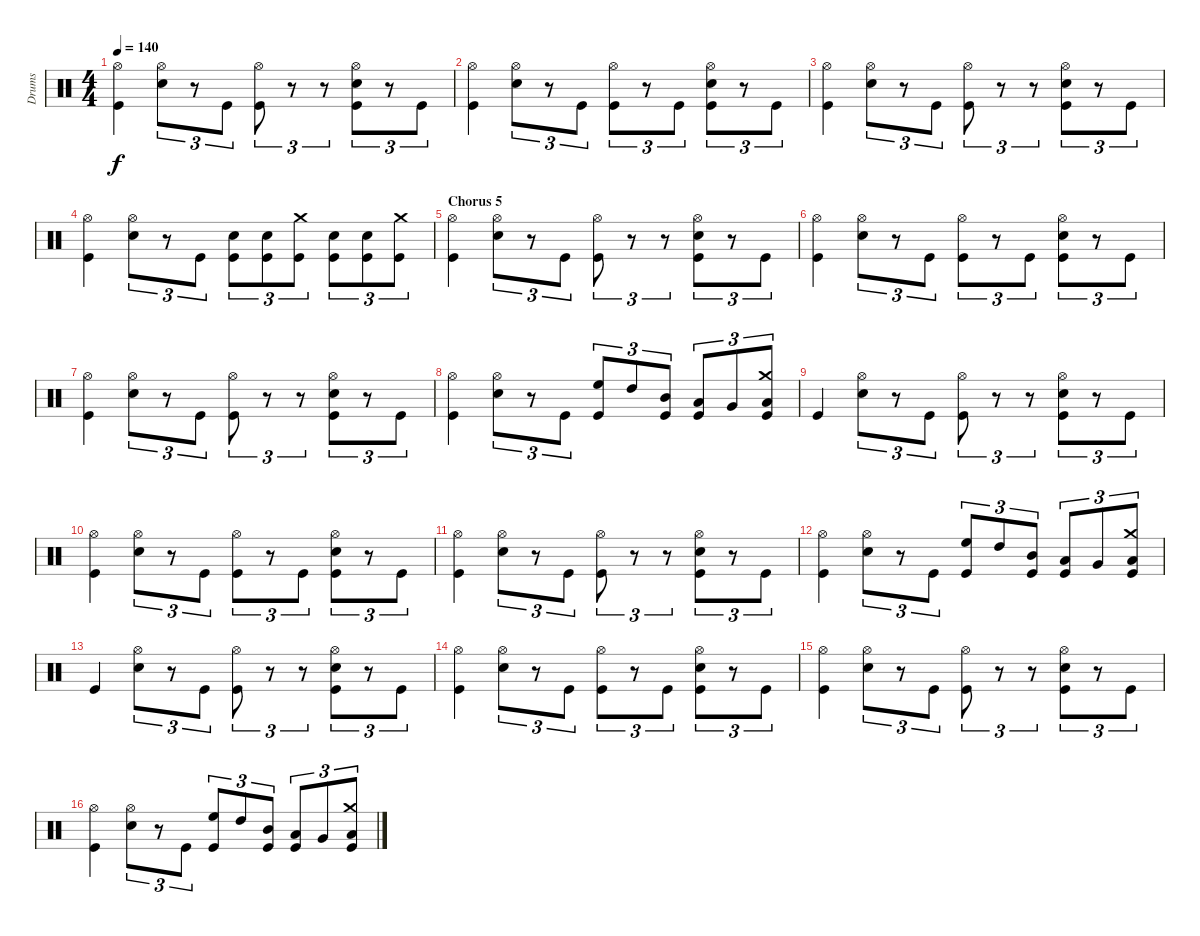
\track ("Drums" "Drums") {instrument percussion}
\staff {score}
\articulation defaults
\ts (4 4)
\tempo 140
\clef neutral
\ks c
("Hi-Hat (open)" "Kick (hit)").4{dy f} ("Hi-Hat (open)" "Electric Snare (hit)").8{tu (3 2)} r.8{tu (3 2)} "Kick (hit)".8{tu (3 2)} ("Hi-Hat (open)" "Kick (hit)").8{tu (3 2)} r.8{tu (3 2)} r.8{tu (3 2)} ("Hi-Hat (open)" "Kick (hit)" "Electric Snare (hit)").8{tu (3 2)} r.8{tu (3 2)} "Kick (hit)".8{tu (3 2)} |
("Hi-Hat (open)" "Kick (hit)").4 ("Hi-Hat (open)" "Electric Snare (hit)").8{tu (3 2)} r.8{tu (3 2)} "Kick (hit)".8{tu (3 2)} ("Hi-Hat (open)" "Kick (hit)").8{tu (3 2)} r.8{tu (3 2)} "Kick (hit)".8{tu (3 2)} ("Hi-Hat (open)" "Kick (hit)" "Electric Snare (hit)").8{tu (3 2)} r.8{tu (3 2)} "Kick (hit)".8{tu (3 2)} |
("Hi-Hat (open)" "Kick (hit)").4 ("Hi-Hat (open)" "Electric Snare (hit)").8{tu (3 2)} r.8{tu (3 2)} "Kick (hit)".8{tu (3 2)} ("Hi-Hat (open)" "Kick (hit)").8{tu (3 2)} r.8{tu (3 2)} r.8{tu (3 2)} ("Hi-Hat (open)" "Kick (hit)" "Electric Snare (hit)").8{tu (3 2)} r.8{tu (3 2)} "Kick (hit)".8{tu (3 2)} |
("Hi-Hat (open)" "Kick (hit)").4 ("Hi-Hat (open)" "Electric Snare (hit)").8{tu (3 2)} r.8{tu (3 2)} "Kick (hit)".8{tu (3 2)} ("Kick (hit)" "Electric Snare (hit)").8{tu (3 2)} ("Kick (hit)" "Electric Snare (hit)").8{tu (3 2)} ("Crash medium (hit)" "Kick (hit)").8{tu (3 2)} ("Kick (hit)" "Electric Snare (hit)").8{tu (3 2)} ("Kick (hit)" "Electric Snare (hit)").8{tu (3 2)} ("Crash medium (hit)" "Kick (hit)").8{tu (3 2)} |
\section ("" "Chorus 5")
("Hi-Hat (open)" "Kick (hit)").4 ("Hi-Hat (open)" "Electric Snare (hit)").8{tu (3 2)} r.8{tu (3 2)} "Kick (hit)".8{tu (3 2)} ("Hi-Hat (open)" "Kick (hit)").8{tu (3 2)} r.8{tu (3 2)} r.8{tu (3 2)} ("Hi-Hat (open)" "Kick (hit)" "Electric Snare (hit)").8{tu (3 2)} r.8{tu (3 2)} "Kick (hit)".8{tu (3 2)} |
("Hi-Hat (open)" "Kick (hit)").4 ("Hi-Hat (open)" "Electric Snare (hit)").8{tu (3 2)} r.8{tu (3 2)} "Kick (hit)".8{tu (3 2)} ("Hi-Hat (open)" "Kick (hit)").8{tu (3 2)} r.8{tu (3 2)} "Kick (hit)".8{tu (3 2)} ("Hi-Hat (open)" "Kick (hit)" "Electric Snare (hit)").8{tu (3 2)} r.8{tu (3 2)} "Kick (hit)".8{tu (3 2)} |
("Hi-Hat (open)" "Kick (hit)").4 ("Hi-Hat (open)" "Electric Snare (hit)").8{tu (3 2)} r.8{tu (3 2)} "Kick (hit)".8{tu (3 2)} ("Hi-Hat (open)" "Kick (hit)").8{tu (3 2)} r.8{tu (3 2)} r.8{tu (3 2)} ("Hi-Hat (open)" "Kick (hit)" "Electric Snare (hit)").8{tu (3 2)} r.8{tu (3 2)} "Kick (hit)".8{tu (3 2)} |
("Hi-Hat (open)" "Kick (hit)").4 ("Hi-Hat (open)" "Electric Snare (hit)").8{tu (3 2)} r.8{tu (3 2)} "Kick (hit)".8{tu (3 2)} ("Kick (hit)" "High Floor Tom (hit)").8{tu (3 2)} "High Tom (hit)".8{tu (3 2)} ("Kick (hit)" "Mid Tom (hit)").8{tu (3 2)} ("Kick (hit)" "Low Tom (hit)").8{tu (3 2)} "Very Low Tom (hit)".8{tu (3 2)} ("Crash medium (hit)" "Kick (hit)" "Low Floor Tom (hit)").8{tu (3 2)} |
"Kick (hit)".4 ("Hi-Hat (open)" "Electric Snare (hit)").8{tu (3 2)} r.8{tu (3 2)} "Kick (hit)".8{tu (3 2)} ("Hi-Hat (open)" "Kick (hit)").8{tu (3 2)} r.8{tu (3 2)} r.8{tu (3 2)} ("Hi-Hat (open)" "Kick (hit)" "Electric Snare (hit)").8{tu (3 2)} r.8{tu (3 2)} "Kick (hit)".8{tu (3 2)} |
("Hi-Hat (open)" "Kick (hit)").4 ("Hi-Hat (open)" "Electric Snare (hit)").8{tu (3 2)} r.8{tu (3 2)} "Kick (hit)".8{tu (3 2)} ("Hi-Hat (open)" "Kick (hit)").8{tu (3 2)} r.8{tu (3 2)} "Kick (hit)".8{tu (3 2)} ("Hi-Hat (open)" "Kick (hit)" "Electric Snare (hit)").8{tu (3 2)} r.8{tu (3 2)} "Kick (hit)".8{tu (3 2)} |
("Hi-Hat (open)" "Kick (hit)").4 ("Hi-Hat (open)" "Electric Snare (hit)").8{tu (3 2)} r.8{tu (3 2)} "Kick (hit)".8{tu (3 2)} ("Hi-Hat (open)" "Kick (hit)").8{tu (3 2)} r.8{tu (3 2)} r.8{tu (3 2)} ("Hi-Hat (open)" "Kick (hit)" "Electric Snare (hit)").8{tu (3 2)} r.8{tu (3 2)} "Kick (hit)".8{tu (3 2)} |
("Hi-Hat (open)" "Kick (hit)").4 ("Hi-Hat (open)" "Electric Snare (hit)").8{tu (3 2)} r.8{tu (3 2)} "Kick (hit)".8{tu (3 2)} ("Kick (hit)" "High Floor Tom (hit)").8{tu (3 2)} "High Tom (hit)".8{tu (3 2)} ("Kick (hit)" "Mid Tom (hit)").8{tu (3 2)} ("Kick (hit)" "Low Tom (hit)").8{tu (3 2)} "Very Low Tom (hit)".8{tu (3 2)} ("Crash medium (hit)" "Kick (hit)" "Low Floor Tom (hit)").8{tu (3 2)} |
"Kick (hit)".4 ("Hi-Hat (open)" "Electric Snare (hit)").8{tu (3 2)} r.8{tu (3 2)} "Kick (hit)".8{tu (3 2)} ("Hi-Hat (open)" "Kick (hit)").8{tu (3 2)} r.8{tu (3 2)} r.8{tu (3 2)} ("Hi-Hat (open)" "Kick (hit)" "Electric Snare (hit)").8{tu (3 2)} r.8{tu (3 2)} "Kick (hit)".8{tu (3 2)} |
("Hi-Hat (open)" "Kick (hit)").4 ("Hi-Hat (open)" "Electric Snare (hit)").8{tu (3 2)} r.8{tu (3 2)} "Kick (hit)".8{tu (3 2)} ("Hi-Hat (open)" "Kick (hit)").8{tu (3 2)} r.8{tu (3 2)} "Kick (hit)".8{tu (3 2)} ("Hi-Hat (open)" "Kick (hit)" "Electric Snare (hit)").8{tu (3 2)} r.8{tu (3 2)} "Kick (hit)".8{tu (3 2)} |
("Hi-Hat (open)" "Kick (hit)").4 ("Hi-Hat (open)" "Electric Snare (hit)").8{tu (3 2)} r.8{tu (3 2)} "Kick (hit)".8{tu (3 2)} ("Hi-Hat (open)" "Kick (hit)").8{tu (3 2)} r.8{tu (3 2)} r.8{tu (3 2)} ("Hi-Hat (open)" "Kick (hit)" "Electric Snare (hit)").8{tu (3 2)} r.8{tu (3 2)} "Kick (hit)".8{tu (3 2)} |
("Hi-Hat (open)" "Kick (hit)").4 ("Hi-Hat (open)" "Electric Snare (hit)").8{tu (3 2)} r.8{tu (3 2)} "Kick (hit)".8{tu (3 2)} ("Kick (hit)" "High Floor Tom (hit)").8{tu (3 2)} "High Tom (hit)".8{tu (3 2)} ("Kick (hit)" "Mid Tom (hit)").8{tu (3 2)} ("Kick (hit)" "Low Tom (hit)").8{tu (3 2)} "Very Low Tom (hit)".8{tu (3 2)} ("Crash medium (hit)" "Kick (hit)" "Low Floor Tom (hit)").8{tu (3 2)}
